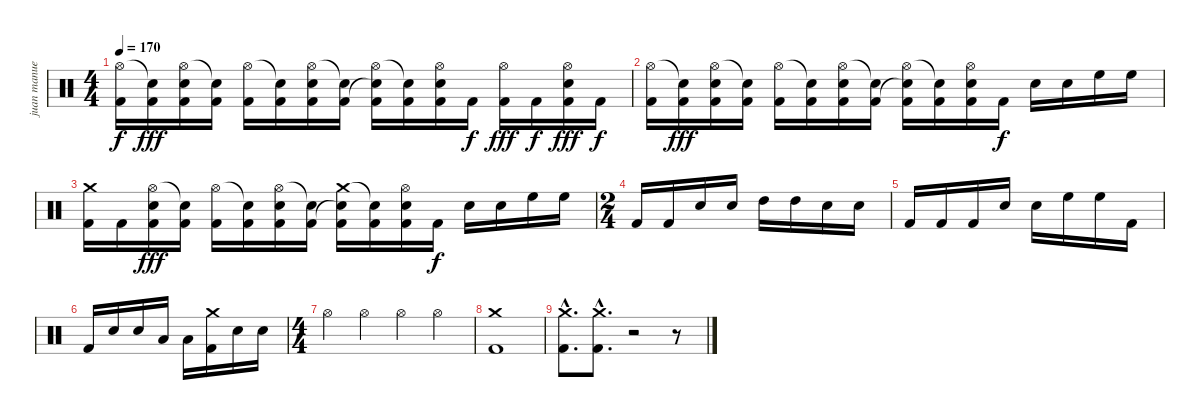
\track ("juan manuel" "juan manue") {instrument percussion}
\staff {score}
\articulation defaults
\ts (4 4)
\tempo 170
\clef neutral
\ks c
("Hi-Hat (open)" "Kick (hit) 2").16{dy f} ("Snare (hit)"{t} "Kick (hit) 2").16{dy fff} ("Hi-Hat (open)" "Snare (hit) 2" "Kick (hit) 2").16 ("Snare (hit)"{t} "Kick (hit) 2").16 ("Hi-Hat (open)" "Kick (hit) 2").16 ("Snare (hit)"{t} "Kick (hit) 2").16 ("Hi-Hat (open)" "Snare (hit) 2" "Kick (hit) 2").16 ("Snare (hit)"{t} "Kick (hit) 2").16 ("Hi-Hat (open)" "Snare (hit)"{t} "Kick (hit) 2").16 ("Snare (hit)"{t} "Kick (hit) 2").16 ("Hi-Hat (open)" "Snare (hit) 2" "Kick (hit) 2").16 "Kick (hit) 2".16{dy f} ("Hi-Hat (open)" "Kick (hit) 2").16{dy fff} "Kick (hit) 2".16{dy f} ("Hi-Hat (open)" "Snare (hit) 2" "Kick (hit) 2").16{dy fff} "Kick (hit) 2".16{dy f} |
("Hi-Hat (open)" "Kick (hit) 2").16 ("Snare (hit)"{t} "Kick (hit) 2").16{dy fff} ("Hi-Hat (open)" "Snare (hit) 2" "Kick (hit) 2").16 ("Snare (hit)"{t} "Kick (hit) 2").16 ("Hi-Hat (open)" "Kick (hit) 2").16 ("Snare (hit)"{t} "Kick (hit) 2").16 ("Hi-Hat (open)" "Snare (hit) 2" "Kick (hit) 2").16 ("Snare (hit)"{t} "Kick (hit) 2").16 ("Hi-Hat (open)" "Snare (hit)"{t} "Kick (hit) 2").16 ("Snare (hit)"{t} "Kick (hit) 2").16 ("Hi-Hat (open)" "Snare (hit) 2" "Kick (hit) 2").16 "Kick (hit) 2".16{dy f} "Electric Snare (hit)".16 "Electric Snare (hit)".16 "High Floor Tom (hit)".16 "High Floor Tom (hit)".16 |
("Crash medium (hit)" "Kick (hit) 2").16 "Kick (hit) 2".16 ("Hi-Hat (open)" "Snare (hit) 2" "Kick (hit) 2").16{dy fff} ("Snare (hit)"{t} "Kick (hit) 2").16 ("Hi-Hat (open)" "Kick (hit) 2").16 ("Snare (hit)"{t} "Kick (hit) 2").16 ("Hi-Hat (open)" "Snare (hit) 2" "Kick (hit) 2").16 ("Snare (hit)"{t} "Kick (hit) 2").16 ("Crash medium (hit)" "Snare (hit)"{t} "Kick (hit) 2").16 ("Snare (hit)"{t} "Kick (hit) 2").16 ("Hi-Hat (open)" "Snare (hit) 2" "Kick (hit) 2").16 "Kick (hit) 2".16{dy f} "Electric Snare (hit)".16 "Electric Snare (hit)".16 "High Floor Tom (hit)".16 "High Floor Tom (hit)".16 |
\ts (2 4)
"Kick (hit) 2".16 "Kick (hit) 2".16 "Electric Snare (hit)".16 "Electric Snare (hit)".16 "High Tom (hit)".16 "High Tom (hit)".16 "Electric Snare (hit)".16 "Electric Snare (hit)".16 |
"Kick (hit) 2".16 "Kick (hit) 2".16 "Kick (hit) 2".16 "Electric Snare (hit)".16 "Electric Snare (hit)".16 "High Floor Tom (hit)".16 "High Floor Tom (hit)".16 "Kick (hit) 2".16 |
"Kick (hit) 2".16 "Electric Snare (hit)".16 "Electric Snare (hit)".16 "Low Tom (hit)".16 "Low Tom (hit)".16 ("Crash medium (hit)" "Kick (hit) 2").16 "Electric Snare (hit)".16 "Electric Snare (hit)".16 |
\ts (4 4)
"Hi-Hat (open)".4 "Hi-Hat (open)".4 "Hi-Hat (open)".4 "Hi-Hat (open)".4 |
("Crash medium (hit)" "Kick (hit) 2").1 |
("Crash medium (hit)"{hac} "Kick (hit) 2"{hac}).8{d} ("Crash medium (hit)"{hac} "Kick (hit) 2"{hac}).8{d} r.2 r.8
